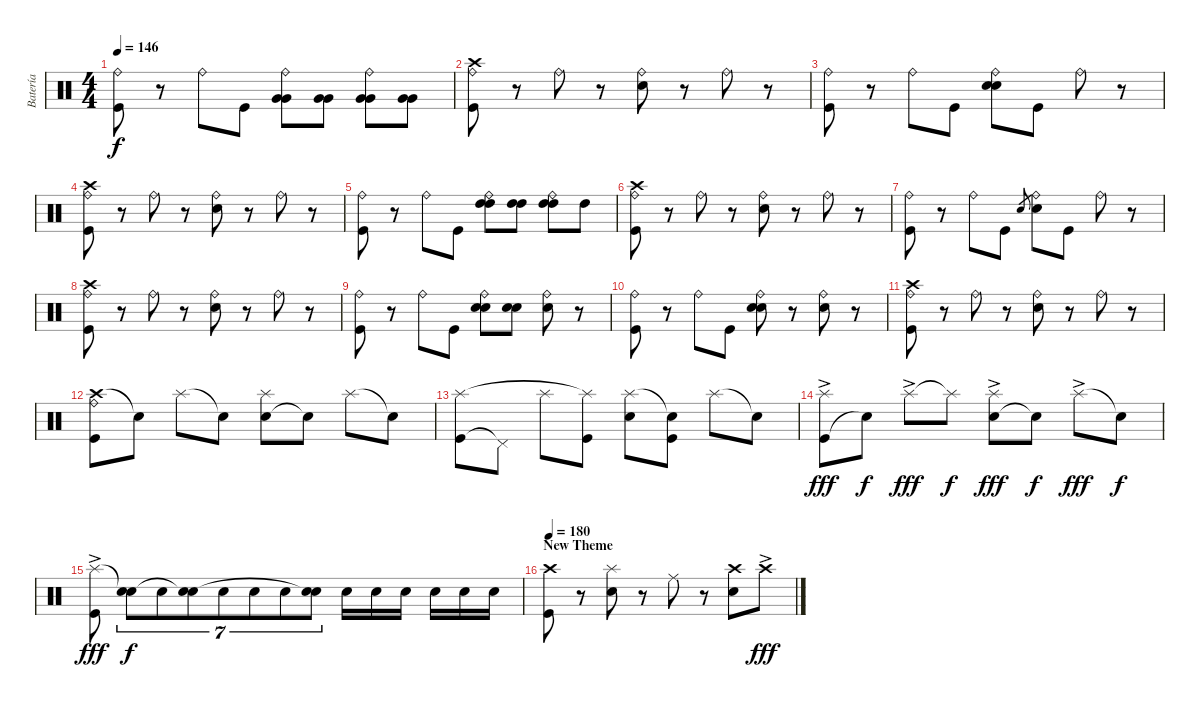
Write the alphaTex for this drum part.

\track ("Batería" "Batería") {instrument percussion}
\staff {score}
\articulation defaults
\ts (4 4)
\tempo 146
\clef neutral
\ks c
("Kick (hit)" "Ride (bell)").8{dy f} r.8 "Ride (bell)".8 "Kick (hit)".8 ("Very Low Tom (hit)" "Very Low Tom (hit)" "Ride (bell)").8 ("Very Low Tom (hit)" "Very Low Tom (hit)").8 ("Very Low Tom (hit)" "Very Low Tom (hit)" "Ride (bell)").8 ("Very Low Tom (hit)" "Very Low Tom (hit)").8 |
("Crash high (hit)" "Kick (hit)" "Ride (bell)").8 r.8 "Ride (bell)".8 r.8 ("Electric Snare (hit)" "Ride (bell)").8 r.8 "Ride (bell)".8 r.8 |
("Kick (hit)" "Ride (bell)").8 r.8 "Ride (bell)".8 "Kick (hit)".8 ("Snare (hit) 2" "Snare (hit) 2" "Ride (bell)").8 "Kick (hit)".8 "Ride (bell)".8 r.8 |
("Crash high (hit)" "Kick (hit)" "Ride (bell)").8 r.8 "Ride (bell)".8 r.8 ("Electric Snare (hit)" "Ride (bell)").8 r.8 "Ride (bell)".8 r.8 |
("Kick (hit)" "Ride (bell)").8 r.8 "Ride (bell)".8 "Kick (hit)".8 ("High Tom (hit)" "High Tom (hit)" "Ride (bell)").8 ("High Tom (hit)" "High Tom (hit)").8 ("High Tom (hit)" "High Tom (hit)" "Ride (bell)").8 "High Tom (hit)".8 |
("Crash high (hit)" "Kick (hit)" "Ride (bell)").8 r.8 "Ride (bell)".8 r.8 ("Electric Snare (hit)" "Ride (bell)").8 r.8 "Ride (bell)".8 r.8 |
("Kick (hit)" "Ride (bell)").8 r.8 "Ride (bell)".8 "Kick (hit)".8 "Electric Snare (hit)".8{gr} ("Electric Snare (hit)" "Ride (bell)").8 "Kick (hit)".8 "Ride (bell)".8 r.8 |
("Crash high (hit)" "Kick (hit)" "Ride (bell)").8 r.8 "Ride (bell)".8 r.8 ("Electric Snare (hit)" "Ride (bell)").8 r.8 "Ride (bell)".8 r.8 |
("Kick (hit)" "Ride (bell)").8 r.8 "Ride (bell)".8 "Kick (hit)".8 ("Snare (hit) 2" "Snare (hit) 2" "Ride (bell)").8 ("Snare (hit) 2" "Snare (hit) 2").8 ("Snare (hit) 2" "Ride (bell)").8 r.8 |
("Kick (hit)" "Ride (bell)").8 r.8 "Ride (bell)".8 "Kick (hit)".8 ("Snare (hit) 2" "Electric Snare (hit)" "Ride (bell)").8 r.8 ("Snare (hit) 2" "Ride (bell)").8 r.8 |
("Crash high (hit)" "Kick (hit)" "Ride (bell)").8 r.8 "Ride (bell)".8 r.8 ("Electric Snare (hit)" "Ride (bell)").8 r.8 "Ride (bell)".8 r.8 |
("Crash high (hit)" "Kick (hit)" "Ride (bell)").8 "Snare (hit)"{t}.8 "Splash (hit)".8 "Snare (hit)"{t}.8 ("Electric Snare (hit)" "Splash (hit)").8 "Snare (hit)"{t}.8 "Splash (hit)".8 "Snare (hit)"{t}.8 |
("Kick (hit)" "Splash (hit)").8 "Pedal Hi-Hat (hit)"{t}.8 "Splash (hit)".8 ("Kick (hit)" "Splash (hit)"{t}).8 ("Electric Snare (hit)" "Splash (hit)").8 ("Kick (hit)" "Snare (hit)"{t}).8 "Splash (hit)".8 "Snare (hit)"{t}.8 |
("Kick (hit)" "Splash (hit)"{ac}).8{dy fff} "Snare (hit)"{t}.8{dy f} "Splash (hit)"{ac}.8{dy fff} "Splash (hit)"{t}.8{dy f} ("Electric Snare (hit)" "Splash (hit)"{ac}).8{dy fff} "Snare (hit)"{t}.8{dy f} "Splash (hit)"{ac}.8{dy fff} "Snare (hit)"{t}.8{dy f} |
("Kick (hit)" "Splash (hit)"{ac}).8{dy fff} ("Electric Snare (hit)" "Snare (hit)"{t}).8{tu (7 4) dy f} "Electric Snare (hit)".8{tu (7 4)} ("Electric Snare (hit)" "Snare (hit)"{t}).8{tu (7 4)} "Electric Snare (hit)".8{tu (7 4)} "Electric Snare (hit)".8{tu (7 4)} "Electric Snare (hit)".8{tu (7 4)} ("Electric Snare (hit)" "Snare (hit)"{t}).8{tu (7 4)} "Electric Snare (hit)".16 "Electric Snare (hit)".16 "Electric Snare (hit)".16 "Electric Snare (hit)".16 "Electric Snare (hit)".16 "Electric Snare (hit)".16 |
\section ("" "New Theme")
\tempo 180
("Crash high (hit)" "Kick (hit)").8 r.8 ("Electric Snare (hit)" "Splash (hit)").8 r.8 "Ride (middle)".8 r.8 ("Electric Snare (hit)" "Crash high (hit)").8 "Crash high (hit)"{ac}.8{dy fff}
